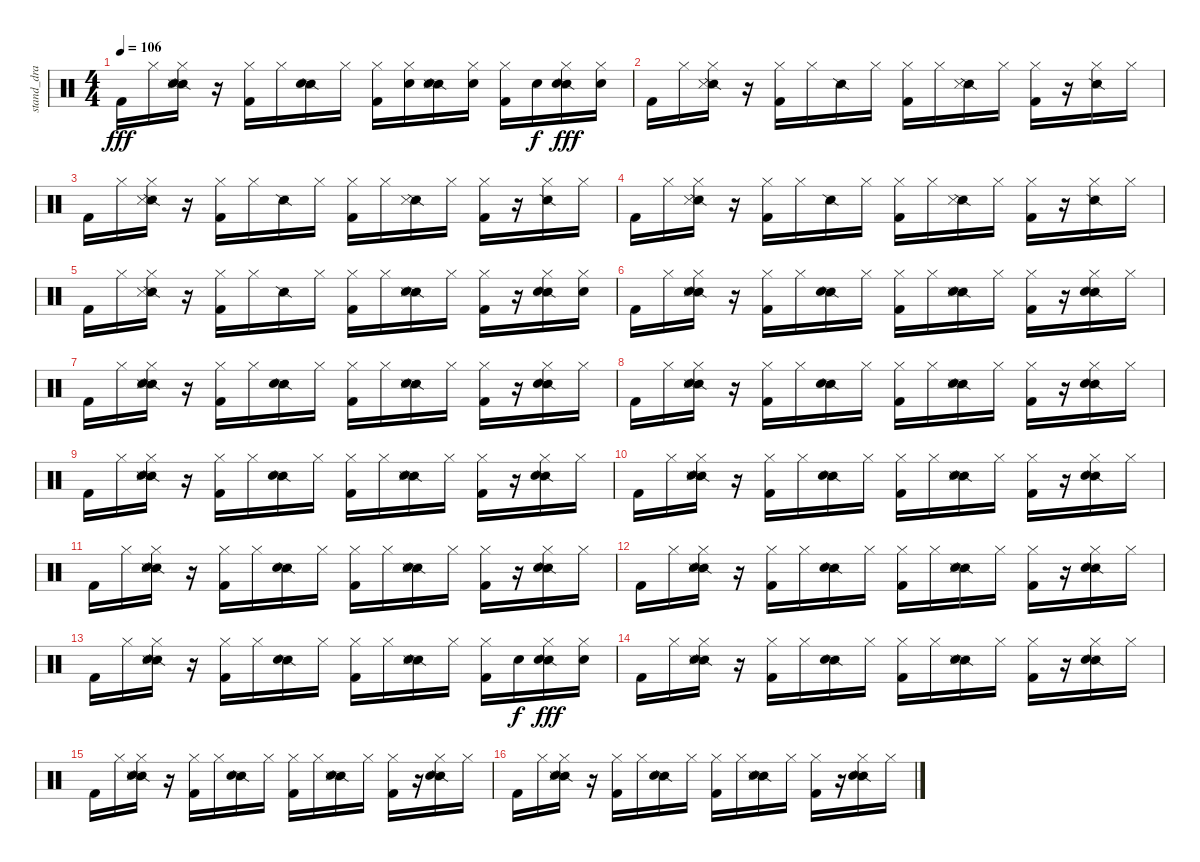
\track ("stand_dra" "stand_dra") {instrument percussion}
\staff {score}
\articulation defaults
\ts (4 4)
\tempo 106
\clef neutral
\ks c "Kick (hit) 2".16{dy fff} "Hi-Hat (closed)".16
("Snare (side stick) 2" "Metronome (hit)" "Snare (hit) 2" "Hi-Hat (closed)").16 r.16 ("Kick (hit) 2" "Hi-Hat (closed)").16 "Hi-Hat (closed)".16 ("Snare (side stick) 2" "Snare (hit) 2").16 "Hi-Hat (closed)".16 ("Kick (hit) 2" "Hi-Hat (closed)").16 ("Snare (hit) 2" "Hi-Hat (closed)").16 ("Snare (side stick) 2" "Metronome (hit)" "Snare (hit) 2").16 ("Snare (hit) 2" "Hi-Hat (closed)").16 ("Kick (hit) 2" "Hi-Hat (closed)").16 "Snare (hit) 2".16{dy f} ("Snare (side stick) 2" "Snare (hit) 2" "Hi-Hat (closed)").16{dy fff} ("Snare (hit) 2" "Hi-Hat (closed)").16 |
"Kick (hit) 2".16 "Hi-Hat (closed)".16 ("Snare (side stick) 2" "Metronome (hit)" "Hi-Hat (closed)").16 r.16 ("Kick (hit) 2" "Hi-Hat (closed)").16 "Hi-Hat (closed)".16 "Snare (side stick) 2".16 "Hi-Hat (closed)".16 ("Kick (hit) 2" "Hi-Hat (closed)").16 "Hi-Hat (closed)".16 ("Snare (side stick) 2" "Metronome (hit)").16 "Hi-Hat (closed)".16 ("Kick (hit) 2" "Hi-Hat (closed)").16 r.16 ("Snare (side stick) 2" "Hi-Hat (closed)").16 "Hi-Hat (closed)".16 |
"Kick (hit) 2".16 "Hi-Hat (closed)".16 ("Snare (side stick) 2" "Metronome (hit)" "Hi-Hat (closed)").16 r.16 ("Kick (hit) 2" "Hi-Hat (closed)").16 "Hi-Hat (closed)".16 "Snare (side stick) 2".16 "Hi-Hat (closed)".16 ("Kick (hit) 2" "Hi-Hat (closed)").16 "Hi-Hat (closed)".16 ("Snare (side stick) 2" "Metronome (hit)").16 "Hi-Hat (closed)".16 ("Kick (hit) 2" "Hi-Hat (closed)").16 r.16 ("Snare (side stick) 2" "Hi-Hat (closed)").16 "Hi-Hat (closed)".16 |
"Kick (hit) 2".16 "Hi-Hat (closed)".16 ("Snare (side stick) 2" "Metronome (hit)" "Hi-Hat (closed)").16 r.16 ("Kick (hit) 2" "Hi-Hat (closed)").16 "Hi-Hat (closed)".16 "Snare (side stick) 2".16 "Hi-Hat (closed)".16 ("Kick (hit) 2" "Hi-Hat (closed)").16 "Hi-Hat (closed)".16 ("Snare (side stick) 2" "Metronome (hit)").16 "Hi-Hat (closed)".16 ("Kick (hit) 2" "Hi-Hat (closed)").16 r.16 ("Snare (side stick) 2" "Hi-Hat (closed)").16 "Hi-Hat (closed)".16 |
"Kick (hit) 2".16 "Hi-Hat (closed)".16 ("Snare (side stick) 2" "Metronome (hit)" "Hi-Hat (closed)").16 r.16 ("Kick (hit) 2" "Hi-Hat (closed)").16 "Hi-Hat (closed)".16 "Snare (side stick) 2".16 "Hi-Hat (closed)".16 ("Kick (hit) 2" "Hi-Hat (closed)").16 "Hi-Hat (closed)".16 ("Snare (side stick) 2" "Metronome (hit)" "Snare (hit) 2").16 "Hi-Hat (closed)".16 ("Kick (hit) 2" "Hi-Hat (closed)").16 r.16 ("Snare (side stick) 2" "Snare (hit) 2" "Hi-Hat (closed)").16 ("Snare (hit) 2" "Hi-Hat (closed)").16 |
"Kick (hit) 2".16 "Hi-Hat (closed)".16 ("Snare (side stick) 2" "Metronome (hit)" "Snare (hit) 2" "Hi-Hat (closed)").16 r.16 ("Kick (hit) 2" "Hi-Hat (closed)").16 "Hi-Hat (closed)".16 ("Snare (side stick) 2" "Snare (hit) 2").16 "Hi-Hat (closed)".16 ("Kick (hit) 2" "Hi-Hat (closed)").16 "Hi-Hat (closed)".16 ("Snare (side stick) 2" "Metronome (hit)" "Snare (hit) 2").16 "Hi-Hat (closed)".16 ("Kick (hit) 2" "Hi-Hat (closed)").16 r.16 ("Snare (side stick) 2" "Snare (hit) 2" "Hi-Hat (closed)").16 "Hi-Hat (closed)".16 |
"Kick (hit) 2".16 "Hi-Hat (closed)".16 ("Snare (side stick) 2" "Metronome (hit)" "Snare (hit) 2" "Hi-Hat (closed)").16 r.16 ("Kick (hit) 2" "Hi-Hat (closed)").16 "Hi-Hat (closed)".16 ("Snare (side stick) 2" "Snare (hit) 2").16 "Hi-Hat (closed)".16 ("Kick (hit) 2" "Hi-Hat (closed)").16 "Hi-Hat (closed)".16 ("Snare (side stick) 2" "Metronome (hit)" "Snare (hit) 2").16 "Hi-Hat (closed)".16 ("Kick (hit) 2" "Hi-Hat (closed)").16 r.16 ("Snare (side stick) 2" "Snare (hit) 2" "Hi-Hat (closed)").16 "Hi-Hat (closed)".16 |
"Kick (hit) 2".16 "Hi-Hat (closed)".16 ("Snare (side stick) 2" "Metronome (hit)" "Snare (hit) 2" "Hi-Hat (closed)").16 r.16 ("Kick (hit) 2" "Hi-Hat (closed)").16 "Hi-Hat (closed)".16 ("Snare (side stick) 2" "Snare (hit) 2").16 "Hi-Hat (closed)".16 ("Kick (hit) 2" "Hi-Hat (closed)").16 "Hi-Hat (closed)".16 ("Snare (side stick) 2" "Metronome (hit)" "Snare (hit) 2").16 "Hi-Hat (closed)".16 ("Kick (hit) 2" "Hi-Hat (closed)").16 r.16 ("Snare (side stick) 2" "Snare (hit) 2" "Hi-Hat (closed)").16 "Hi-Hat (closed)".16 |
"Kick (hit) 2".16 "Hi-Hat (closed)".16 ("Snare (side stick) 2" "Metronome (hit)" "Snare (hit) 2" "Hi-Hat (closed)").16 r.16 ("Kick (hit) 2" "Hi-Hat (closed)").16 "Hi-Hat (closed)".16 ("Snare (side stick) 2" "Snare (hit) 2").16 "Hi-Hat (closed)".16 ("Kick (hit) 2" "Hi-Hat (closed)").16 "Hi-Hat (closed)".16 ("Snare (side stick) 2" "Metronome (hit)" "Snare (hit) 2").16 "Hi-Hat (closed)".16 ("Kick (hit) 2" "Hi-Hat (closed)").16 r.16 ("Snare (side stick) 2" "Snare (hit) 2" "Hi-Hat (closed)").16 "Hi-Hat (closed)".16 |
"Kick (hit) 2".16 "Hi-Hat (closed)".16 ("Snare (side stick) 2" "Metronome (hit)" "Snare (hit) 2" "Hi-Hat (closed)").16 r.16 ("Kick (hit) 2" "Hi-Hat (closed)").16 "Hi-Hat (closed)".16 ("Snare (side stick) 2" "Snare (hit) 2").16 "Hi-Hat (closed)".16 ("Kick (hit) 2" "Hi-Hat (closed)").16 "Hi-Hat (closed)".16 ("Snare (side stick) 2" "Metronome (hit)" "Snare (hit) 2").16 "Hi-Hat (closed)".16 ("Kick (hit) 2" "Hi-Hat (closed)").16 r.16 ("Snare (side stick) 2" "Snare (hit) 2" "Hi-Hat (closed)").16 "Hi-Hat (closed)".16 |
"Kick (hit) 2".16 "Hi-Hat (closed)".16 ("Snare (side stick) 2" "Metronome (hit)" "Snare (hit) 2" "Hi-Hat (closed)").16 r.16 ("Kick (hit) 2" "Hi-Hat (closed)").16 "Hi-Hat (closed)".16 ("Snare (side stick) 2" "Snare (hit) 2").16 "Hi-Hat (closed)".16 ("Kick (hit) 2" "Hi-Hat (closed)").16 "Hi-Hat (closed)".16 ("Snare (side stick) 2" "Metronome (hit)" "Snare (hit) 2").16 "Hi-Hat (closed)".16 ("Kick (hit) 2" "Hi-Hat (closed)").16 r.16 ("Snare (side stick) 2" "Snare (hit) 2" "Hi-Hat (closed)").16 "Hi-Hat (closed)".16 |
"Kick (hit) 2".16 "Hi-Hat (closed)".16 ("Snare (side stick) 2" "Metronome (hit)" "Snare (hit) 2" "Hi-Hat (closed)").16 r.16 ("Kick (hit) 2" "Hi-Hat (closed)").16 "Hi-Hat (closed)".16 ("Snare (side stick) 2" "Snare (hit) 2").16 "Hi-Hat (closed)".16 ("Kick (hit) 2" "Hi-Hat (closed)").16 "Hi-Hat (closed)".16 ("Snare (side stick) 2" "Metronome (hit)" "Snare (hit) 2").16 "Hi-Hat (closed)".16 ("Kick (hit) 2" "Hi-Hat (closed)").16 r.16 ("Snare (side stick) 2" "Snare (hit) 2" "Hi-Hat (closed)").16 "Hi-Hat (closed)".16 |
"Kick (hit) 2".16 "Hi-Hat (closed)".16 ("Snare (side stick) 2" "Metronome (hit)" "Snare (hit) 2" "Hi-Hat (closed)").16 r.16 ("Kick (hit) 2" "Hi-Hat (closed)").16 "Hi-Hat (closed)".16 ("Snare (side stick) 2" "Snare (hit) 2").16 "Hi-Hat (closed)".16 ("Kick (hit) 2" "Hi-Hat (closed)").16 "Hi-Hat (closed)".16 ("Snare (side stick) 2" "Metronome (hit)" "Snare (hit) 2").16 "Hi-Hat (closed)".16 ("Kick (hit) 2" "Hi-Hat (closed)").16 "Snare (hit) 2".16{dy f} ("Snare (side stick) 2" "Snare (hit) 2" "Hi-Hat (closed)").16{dy fff} ("Snare (hit) 2" "Hi-Hat (closed)").16 |
"Kick (hit) 2".16 "Hi-Hat (closed)".16 ("Snare (side stick) 2" "Metronome (hit)" "Snare (hit) 2" "Hi-Hat (closed)").16 r.16 ("Kick (hit) 2" "Hi-Hat (closed)").16 "Hi-Hat (closed)".16 ("Snare (side stick) 2" "Snare (hit) 2").16 "Hi-Hat (closed)".16 ("Kick (hit) 2" "Hi-Hat (closed)").16 "Hi-Hat (closed)".16 ("Snare (side stick) 2" "Metronome (hit)" "Snare (hit) 2").16 "Hi-Hat (closed)".16 ("Kick (hit) 2" "Hi-Hat (closed)").16 r.16 ("Snare (side stick) 2" "Snare (hit) 2" "Hi-Hat (closed)").16 "Hi-Hat (closed)".16 |
"Kick (hit) 2".16 "Hi-Hat (closed)".16 ("Snare (side stick) 2" "Metronome (hit)" "Snare (hit) 2" "Hi-Hat (closed)").16 r.16 ("Kick (hit) 2" "Hi-Hat (closed)").16 "Hi-Hat (closed)".16 ("Snare (side stick) 2" "Snare (hit) 2").16 "Hi-Hat (closed)".16 ("Kick (hit) 2" "Hi-Hat (closed)").16 "Hi-Hat (closed)".16 ("Snare (side stick) 2" "Metronome (hit)" "Snare (hit) 2").16 "Hi-Hat (closed)".16 ("Kick (hit) 2" "Hi-Hat (closed)").16 r.16 ("Snare (side stick) 2" "Snare (hit) 2" "Hi-Hat (closed)").16 "Hi-Hat (closed)".16 |
"Kick (hit) 2".16 "Hi-Hat (closed)".16 ("Snare (side stick) 2" "Metronome (hit)" "Snare (hit) 2" "Hi-Hat (closed)").16 r.16 ("Kick (hit) 2" "Hi-Hat (closed)").16 "Hi-Hat (closed)".16 ("Snare (side stick) 2" "Snare (hit) 2").16 "Hi-Hat (closed)".16 ("Kick (hit) 2" "Hi-Hat (closed)").16 "Hi-Hat (closed)".16 ("Snare (side stick) 2" "Metronome (hit)" "Snare (hit) 2").16 "Hi-Hat (closed)".16 ("Kick (hit) 2" "Hi-Hat (closed)").16 r.16 ("Snare (side stick) 2" "Snare (hit) 2" "Hi-Hat (closed)").16 "Hi-Hat (closed)".16
